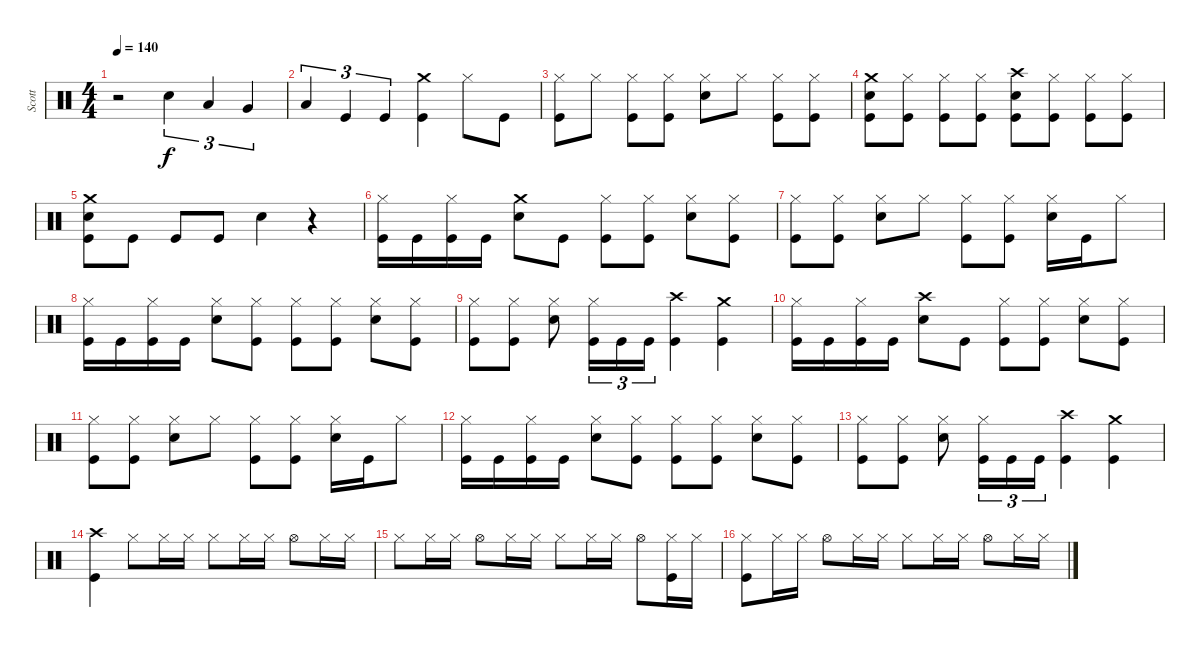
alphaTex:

\track ("Scott" "Scott") {instrument percussion}
\staff {score}
\articulation defaults
\ts (4 4)
\tempo 140
\clef neutral
\ks c
r.2{dy f} "Snare (hit) 2".4{tu (3 2)} "Low Tom (hit)".4{tu (3 2)} "Very Low Tom (hit)".4{tu (3 2)} |
"Low Floor Tom (hit)".4{tu (3 2)} "Kick (hit)".4{tu (3 2)} "Kick (hit)".4{tu (3 2)} ("Kick (hit)" "Crash medium (hit)").4 "Hi-Hat (closed)".8 "Kick (hit)".8 |
("Kick (hit)" "Hi-Hat (closed)").8 "Hi-Hat (closed)".8 ("Kick (hit)" "Hi-Hat (closed)").8 ("Kick (hit)" "Hi-Hat (closed)").8 ("Snare (hit) 2" "Hi-Hat (closed)").8 "Hi-Hat (closed)".8 ("Kick (hit)" "Hi-Hat (closed)").8 ("Kick (hit)" "Hi-Hat (closed)").8 |
("Kick (hit)" "Snare (hit) 2" "Crash medium (hit)").8 ("Kick (hit)" "Hi-Hat (closed)").8 ("Kick (hit)" "Hi-Hat (closed)").8 ("Kick (hit)" "Hi-Hat (closed)").8 ("Kick (hit)" "Snare (hit) 2" "Crash high (hit)").8 ("Kick (hit)" "Hi-Hat (closed)").8 ("Kick (hit)" "Hi-Hat (closed)").8 ("Kick (hit)" "Hi-Hat (closed)").8 |
("Kick (hit)" "Snare (hit) 2" "Crash medium (hit)").8 "Kick (hit)".8 "Kick (hit)".8 "Kick (hit)".8 "Snare (hit) 2".4 r.4 |
("Kick (hit)" "Hi-Hat (closed)").16 "Kick (hit)".16 ("Kick (hit)" "Hi-Hat (closed)").16 "Kick (hit)".16 ("Snare (hit) 2" "Crash medium (hit)").8 "Kick (hit)".8 ("Kick (hit)" "Hi-Hat (closed)").8 ("Kick (hit)" "Hi-Hat (closed)").8 ("Snare (hit) 2" "Hi-Hat (closed)").8 ("Kick (hit)" "Hi-Hat (closed)").8 |
("Kick (hit)" "Hi-Hat (closed)").8 ("Kick (hit)" "Hi-Hat (closed)").8 ("Snare (hit) 2" "Hi-Hat (closed)").8 "Hi-Hat (closed)".8 ("Kick (hit)" "Hi-Hat (closed)").8 ("Kick (hit)" "Hi-Hat (closed)").8 ("Snare (hit) 2" "Hi-Hat (closed)").16 "Kick (hit)".16 "Hi-Hat (closed)".8 |
("Kick (hit)" "Hi-Hat (closed)").16 "Kick (hit)".16 ("Kick (hit)" "Hi-Hat (closed)").16 "Kick (hit)".16 ("Snare (hit) 2" "Hi-Hat (closed)").8 ("Kick (hit)" "Hi-Hat (closed)").8 ("Kick (hit)" "Hi-Hat (closed)").8 ("Kick (hit)" "Hi-Hat (closed)").8 ("Snare (hit) 2" "Hi-Hat (closed)").8 ("Kick (hit)" "Hi-Hat (closed)").8 |
("Kick (hit)" "Hi-Hat (closed)").8 ("Kick (hit)" "Hi-Hat (closed)").8 ("Snare (hit) 2" "Hi-Hat (closed)").8 ("Kick (hit)" "Hi-Hat (closed)").16{tu (3 2)} "Kick (hit)".16{tu (3 2)} "Kick (hit)".16{tu (3 2)} ("Kick (hit)" "Crash high (hit)").4 ("Kick (hit)" "Crash medium (hit)").4 |
("Kick (hit)" "Hi-Hat (closed)").16 "Kick (hit)".16 ("Kick (hit)" "Hi-Hat (closed)").16 "Kick (hit)".16 ("Snare (hit) 2" "Crash high (hit)").8 "Kick (hit)".8 ("Kick (hit)" "Hi-Hat (closed)").8 ("Kick (hit)" "Hi-Hat (closed)").8 ("Snare (hit) 2" "Hi-Hat (closed)").8 ("Kick (hit)" "Hi-Hat (closed)").8 |
("Kick (hit)" "Hi-Hat (closed)").8 ("Kick (hit)" "Hi-Hat (closed)").8 ("Snare (hit) 2" "Hi-Hat (closed)").8 "Hi-Hat (closed)".8 ("Kick (hit)" "Hi-Hat (closed)").8 ("Kick (hit)" "Hi-Hat (closed)").8 ("Snare (hit) 2" "Hi-Hat (closed)").16 "Kick (hit)".16 "Hi-Hat (closed)".8 |
("Kick (hit)" "Hi-Hat (closed)").16 "Kick (hit)".16 ("Kick (hit)" "Hi-Hat (closed)").16 "Kick (hit)".16 ("Snare (hit) 2" "Hi-Hat (closed)").8 ("Kick (hit)" "Hi-Hat (closed)").8 ("Kick (hit)" "Hi-Hat (closed)").8 ("Kick (hit)" "Hi-Hat (closed)").8 ("Snare (hit) 2" "Hi-Hat (closed)").8 ("Kick (hit)" "Hi-Hat (closed)").8 |
("Kick (hit)" "Hi-Hat (closed)").8 ("Kick (hit)" "Hi-Hat (closed)").8 ("Snare (hit) 2" "Hi-Hat (closed)").8 ("Kick (hit)" "Hi-Hat (closed)").16{tu (3 2)} "Kick (hit)".16{tu (3 2)} "Kick (hit)".16{tu (3 2)} ("Kick (hit)" "Crash high (hit)").4 ("Kick (hit)" "Crash medium (hit)").4 |
("Kick (hit)" "Crash high (hit)").4 "Hi-Hat (closed)".8 "Hi-Hat (closed)".16 "Hi-Hat (closed)".16 "Hi-Hat (closed)".8 "Hi-Hat (closed)".16 "Hi-Hat (closed)".16 "Hi-Hat (open)".8 "Hi-Hat (closed)".16 "Hi-Hat (closed)".16 |
"Hi-Hat (closed)".8 "Hi-Hat (closed)".16 "Hi-Hat (closed)".16 "Hi-Hat (open)".8 "Hi-Hat (closed)".16 "Hi-Hat (closed)".16 "Hi-Hat (closed)".8 "Hi-Hat (closed)".16 "Hi-Hat (closed)".16 "Hi-Hat (open)".8 ("Kick (hit)" "Hi-Hat (closed)").16 "Hi-Hat (closed)".16 |
("Kick (hit)" "Hi-Hat (closed)").8 "Hi-Hat (closed)".16 "Hi-Hat (closed)".16 "Hi-Hat (open)".8 "Hi-Hat (closed)".16 "Hi-Hat (closed)".16 "Hi-Hat (closed)".8 "Hi-Hat (closed)".16 "Hi-Hat (closed)".16 "Hi-Hat (open)".8 "Hi-Hat (closed)".16 "Hi-Hat (closed)".16
